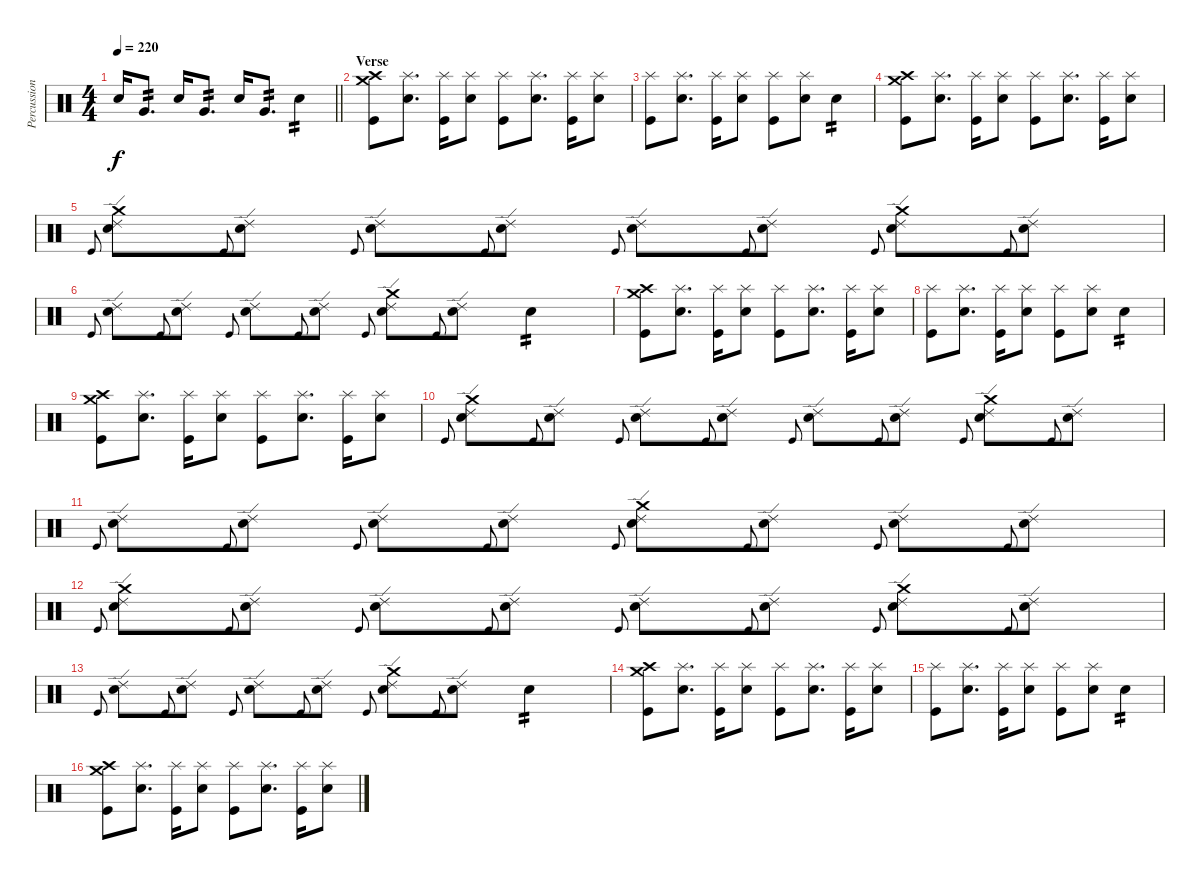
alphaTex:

\track ("Percussion" "Percussion") {instrument percussion}
\staff {score}
\articulation defaults
\ts (4 4)
\tempo 220
\clef neutral
\barLineRight lightlight
\ks c "Snare (hit) 2".16{dy f} "Very Low Tom (hit)".8{d tp 2} "Snare (hit) 2".16 "Very Low Tom (hit)".8{d tp 2} "Snare (hit) 2".16 "Very Low Tom (hit)".8{d tp 2} "Snare (hit) 2".4{tp 2}
|
\section ("" "Verse")
("Crash medium (hit)" "Crash high (hit)" "Kick (hit)").8 ("Splash (hit)" "Snare (hit) 2").8{d} ("Splash (hit)" "Kick (hit)").16 ("Splash (hit)" "Snare (hit) 2").8 ("Splash (hit)" "Kick (hit)").8 ("Splash (hit)" "Snare (hit) 2").8{d} ("Splash (hit)" "Kick (hit)").16 ("Splash (hit)" "Snare (hit) 2").8 |
("Splash (hit)" "Kick (hit)").8 ("Splash (hit)" "Snare (hit) 2").8{d} ("Splash (hit)" "Kick (hit)").16 ("Splash (hit)" "Snare (hit) 2").8 ("Splash (hit)" "Kick (hit)").8 ("Splash (hit)" "Snare (hit) 2").8 "Snare (hit) 2".4{tp 2} |
("Crash high (hit)" "Crash medium (hit)" "Kick (hit)").8 ("Splash (hit)" "Snare (hit) 2").8{d} ("Splash (hit)" "Kick (hit)").16 ("Splash (hit)" "Snare (hit) 2").8 ("Splash (hit)" "Kick (hit)").8 ("Splash (hit)" "Snare (hit) 2").8{d} ("Splash (hit)" "Kick (hit)").16 ("Splash (hit)" "Snare (hit) 2").8 |
"Kick (hit)".8{gr onbeat} ("Crash medium (hit)" "Ride (edge) 2" "Snare (hit) 2").8 "Kick (hit)".8{gr onbeat} ("Ride (edge) 2" "Snare (hit) 2").8 "Kick (hit)".8{gr onbeat} ("Ride (edge) 2" "Snare (hit) 2").8 "Kick (hit)".8{gr onbeat} ("Ride (edge) 2" "Snare (hit) 2").8 "Kick (hit)".8{gr onbeat} ("Ride (edge) 2" "Snare (hit) 2").8 "Kick (hit)".8{gr onbeat} ("Ride (edge) 2" "Snare (hit) 2").8 "Kick (hit)".8{gr onbeat} ("Crash medium (hit)" "Ride (edge) 2" "Snare (hit) 2").8 "Kick (hit)".8{gr onbeat} ("Ride (edge) 2" "Snare (hit) 2").8 |
"Kick (hit)".8{gr onbeat} ("Ride (edge) 2" "Snare (hit) 2").8 "Kick (hit)".8{gr onbeat} ("Ride (edge) 2" "Snare (hit) 2").8 "Kick (hit)".8{gr onbeat} ("Ride (edge) 2" "Snare (hit) 2").8 "Kick (hit)".8{gr onbeat} ("Ride (edge) 2" "Snare (hit) 2").8 "Kick (hit)".8{gr onbeat} ("Crash medium (hit)" "Ride (edge) 2" "Snare (hit) 2").8 "Kick (hit)".8{gr onbeat} ("Ride (edge) 2" "Snare (hit) 2").8 "Snare (hit) 2".4{tp 2} |
("Crash medium (hit)" "Crash high (hit)" "Kick (hit)").8 ("Splash (hit)" "Snare (hit) 2").8{d} ("Splash (hit)" "Kick (hit)").16 ("Splash (hit)" "Snare (hit) 2").8 ("Splash (hit)" "Kick (hit)").8 ("Splash (hit)" "Snare (hit) 2").8{d} ("Splash (hit)" "Kick (hit)").16 ("Splash (hit)" "Snare (hit) 2").8 |
("Splash (hit)" "Kick (hit)").8 ("Splash (hit)" "Snare (hit) 2").8{d} ("Splash (hit)" "Kick (hit)").16 ("Splash (hit)" "Snare (hit) 2").8 ("Splash (hit)" "Kick (hit)").8 ("Splash (hit)" "Snare (hit) 2").8 "Snare (hit) 2".4{tp 2} |
("Crash high (hit)" "Crash medium (hit)" "Kick (hit)").8 ("Splash (hit)" "Snare (hit) 2").8{d} ("Splash (hit)" "Kick (hit)").16 ("Splash (hit)" "Snare (hit) 2").8 ("Splash (hit)" "Kick (hit)").8 ("Splash (hit)" "Snare (hit) 2").8{d} ("Splash (hit)" "Kick (hit)").16 ("Splash (hit)" "Snare (hit) 2").8 |
"Kick (hit)".8{gr onbeat} ("Crash medium (hit)" "Ride (edge) 2" "Snare (hit) 2").8 "Kick (hit)".8{gr onbeat} ("Ride (edge) 2" "Snare (hit) 2").8 "Kick (hit)".8{gr onbeat} ("Ride (edge) 2" "Snare (hit) 2").8 "Kick (hit)".8{gr onbeat} ("Ride (edge) 2" "Snare (hit) 2").8 "Kick (hit)".8{gr onbeat} ("Ride (edge) 2" "Snare (hit) 2").8 "Kick (hit)".8{gr onbeat} ("Ride (edge) 2" "Snare (hit) 2").8 "Kick (hit)".8{gr onbeat} ("Crash medium (hit)" "Ride (edge) 2" "Snare (hit) 2").8 "Kick (hit)".8{gr onbeat} ("Ride (edge) 2" "Snare (hit) 2").8 |
"Kick (hit)".8{gr onbeat} ("Ride (edge) 2" "Snare (hit) 2").8 "Kick (hit)".8{gr onbeat} ("Ride (edge) 2" "Snare (hit) 2").8 "Kick (hit)".8{gr onbeat} ("Ride (edge) 2" "Snare (hit) 2").8 "Kick (hit)".8{gr onbeat} ("Ride (edge) 2" "Snare (hit) 2").8 "Kick (hit)".8{gr onbeat} ("Crash medium (hit)" "Ride (edge) 2" "Snare (hit) 2").8 "Kick (hit)".8{gr onbeat} ("Ride (edge) 2" "Snare (hit) 2").8 "Kick (hit)".8{gr onbeat} ("Ride (edge) 2" "Snare (hit) 2").8 "Kick (hit)".8{gr onbeat} ("Ride (edge) 2" "Snare (hit) 2").8 |
"Kick (hit)".8{gr onbeat} ("Crash medium (hit)" "Ride (edge) 2" "Snare (hit) 2").8 "Kick (hit)".8{gr onbeat} ("Ride (edge) 2" "Snare (hit) 2").8 "Kick (hit)".8{gr onbeat} ("Ride (edge) 2" "Snare (hit) 2").8 "Kick (hit)".8{gr onbeat} ("Ride (edge) 2" "Snare (hit) 2").8 "Kick (hit)".8{gr onbeat} ("Ride (edge) 2" "Snare (hit) 2").8 "Kick (hit)".8{gr onbeat} ("Ride (edge) 2" "Snare (hit) 2").8 "Kick (hit)".8{gr onbeat} ("Crash medium (hit)" "Ride (edge) 2" "Snare (hit) 2").8 "Kick (hit)".8{gr onbeat} ("Ride (edge) 2" "Snare (hit) 2").8 |
"Kick (hit)".8{gr onbeat} ("Ride (edge) 2" "Snare (hit) 2").8 "Kick (hit)".8{gr onbeat} ("Ride (edge) 2" "Snare (hit) 2").8 "Kick (hit)".8{gr onbeat} ("Ride (edge) 2" "Snare (hit) 2").8 "Kick (hit)".8{gr onbeat} ("Ride (edge) 2" "Snare (hit) 2").8 "Kick (hit)".8{gr onbeat} ("Crash medium (hit)" "Ride (edge) 2" "Snare (hit) 2").8 "Kick (hit)".8{gr onbeat} ("Ride (edge) 2" "Snare (hit) 2").8 "Snare (hit) 2".4{tp 2} |
("Crash medium (hit)" "Crash high (hit)" "Kick (hit)").8 ("Splash (hit)" "Snare (hit) 2").8{d} ("Splash (hit)" "Kick (hit)").16 ("Splash (hit)" "Snare (hit) 2").8 ("Splash (hit)" "Kick (hit)").8 ("Splash (hit)" "Snare (hit) 2").8{d} ("Splash (hit)" "Kick (hit)").16 ("Splash (hit)" "Snare (hit) 2").8 |
("Splash (hit)" "Kick (hit)").8 ("Splash (hit)" "Snare (hit) 2").8{d} ("Splash (hit)" "Kick (hit)").16 ("Splash (hit)" "Snare (hit) 2").8 ("Splash (hit)" "Kick (hit)").8 ("Splash (hit)" "Snare (hit) 2").8 "Snare (hit) 2".4{tp 2} |
("Crash high (hit)" "Crash medium (hit)" "Kick (hit)").8 ("Splash (hit)" "Snare (hit) 2").8{d} ("Splash (hit)" "Kick (hit)").16 ("Splash (hit)" "Snare (hit) 2").8 ("Splash (hit)" "Kick (hit)").8 ("Splash (hit)" "Snare (hit) 2").8{d} ("Splash (hit)" "Kick (hit)").16 ("Splash (hit)" "Snare (hit) 2").8
